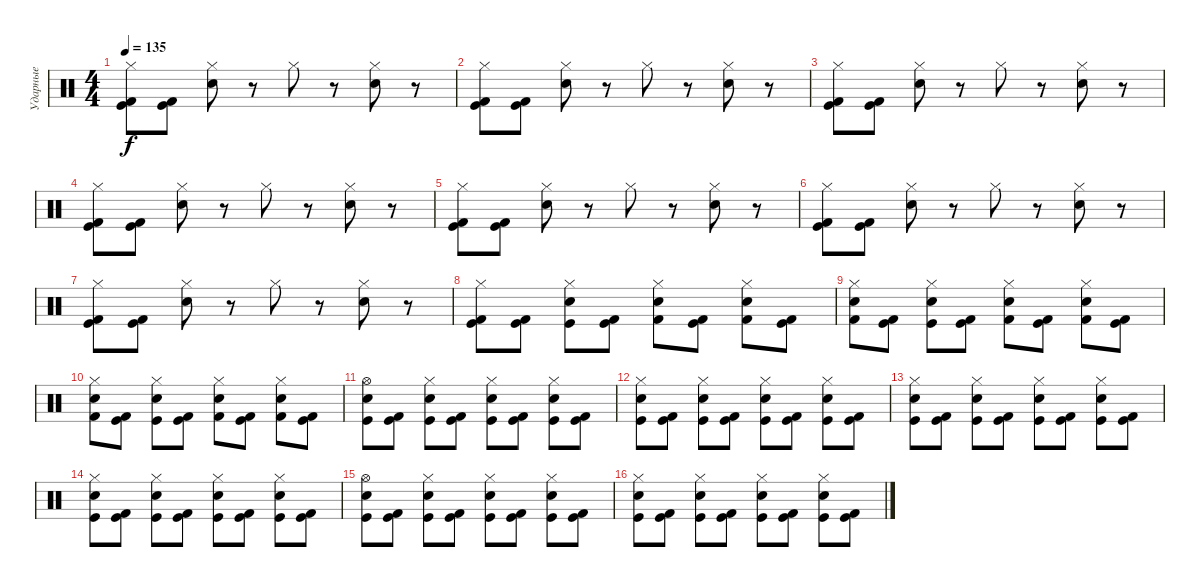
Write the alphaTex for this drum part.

\track ("Ударные" "Ударные") {instrument percussion}
\staff {score}
\articulation defaults
\ts (4 4)
\tempo 135
\clef neutral
\ks c
("Hi-Hat (closed)" "Kick (hit)" "Kick (hit) 2").8{dy f} ("Kick (hit)" "Kick (hit) 2").8 ("Hi-Hat (closed)" "Electric Snare (hit)").8 r.8 "Hi-Hat (closed)".8 r.8 ("Hi-Hat (closed)" "Electric Snare (hit)").8 r.8 |
("Hi-Hat (closed)" "Kick (hit)" "Kick (hit) 2").8 ("Kick (hit)" "Kick (hit) 2").8 ("Hi-Hat (closed)" "Electric Snare (hit)").8 r.8 "Hi-Hat (closed)".8 r.8 ("Hi-Hat (closed)" "Electric Snare (hit)").8 r.8 |
("Hi-Hat (closed)" "Kick (hit)" "Kick (hit) 2").8 ("Kick (hit)" "Kick (hit) 2").8 ("Hi-Hat (closed)" "Electric Snare (hit)").8 r.8 "Hi-Hat (closed)".8 r.8 ("Hi-Hat (closed)" "Electric Snare (hit)").8 r.8 |
("Hi-Hat (closed)" "Kick (hit)" "Kick (hit) 2").8 ("Kick (hit)" "Kick (hit) 2").8 ("Hi-Hat (closed)" "Electric Snare (hit)").8 r.8 "Hi-Hat (closed)".8 r.8 ("Hi-Hat (closed)" "Electric Snare (hit)").8 r.8 |
("Hi-Hat (closed)" "Kick (hit)" "Kick (hit) 2").8 ("Kick (hit)" "Kick (hit) 2").8 ("Hi-Hat (closed)" "Electric Snare (hit)").8 r.8 "Hi-Hat (closed)".8 r.8 ("Hi-Hat (closed)" "Electric Snare (hit)").8 r.8 |
("Hi-Hat (closed)" "Kick (hit)" "Kick (hit) 2").8 ("Kick (hit)" "Kick (hit) 2").8 ("Hi-Hat (closed)" "Electric Snare (hit)").8 r.8 "Hi-Hat (closed)".8 r.8 ("Hi-Hat (closed)" "Electric Snare (hit)").8 r.8 |
("Hi-Hat (closed)" "Kick (hit)" "Kick (hit) 2").8 ("Kick (hit)" "Kick (hit) 2").8 ("Hi-Hat (closed)" "Electric Snare (hit)").8 r.8 "Hi-Hat (closed)".8 r.8 ("Hi-Hat (closed)" "Electric Snare (hit)").8 r.8 |
("Hi-Hat (closed)" "Kick (hit)" "Kick (hit) 2").8 ("Kick (hit)" "Kick (hit) 2").8 ("Hi-Hat (closed)" "Electric Snare (hit)" "Kick (hit)").8 ("Kick (hit)" "Kick (hit) 2").8 ("Hi-Hat (closed)" "Electric Snare (hit)" "Kick (hit) 2").8 ("Kick (hit)" "Kick (hit) 2").8 ("Hi-Hat (closed)" "Electric Snare (hit)" "Kick (hit) 2").8 ("Kick (hit)" "Kick (hit) 2").8 |
("Hi-Hat (closed)" "Electric Snare (hit)" "Kick (hit) 2").8 ("Kick (hit)" "Kick (hit) 2").8 ("Hi-Hat (closed)" "Electric Snare (hit)" "Kick (hit)").8 ("Kick (hit)" "Kick (hit) 2").8 ("Hi-Hat (closed)" "Electric Snare (hit)" "Kick (hit) 2").8 ("Kick (hit)" "Kick (hit) 2").8 ("Hi-Hat (closed)" "Electric Snare (hit)" "Kick (hit) 2").8 ("Kick (hit)" "Kick (hit) 2").8 |
("Hi-Hat (closed)" "Electric Snare (hit)" "Kick (hit) 2").8 ("Kick (hit)" "Kick (hit) 2").8 ("Hi-Hat (closed)" "Electric Snare (hit)" "Kick (hit)").8 ("Kick (hit)" "Kick (hit) 2").8 ("Hi-Hat (closed)" "Electric Snare (hit)" "Kick (hit) 2").8 ("Kick (hit)" "Kick (hit) 2").8 ("Hi-Hat (closed)" "Electric Snare (hit)" "Kick (hit) 2").8 ("Kick (hit)" "Kick (hit) 2").8 |
("Hi-Hat (open)" "Electric Snare (hit)" "Kick (hit)").8 ("Kick (hit)" "Kick (hit) 2").8 ("Hi-Hat (closed)" "Electric Snare (hit)" "Kick (hit)").8 ("Kick (hit)" "Kick (hit) 2").8 ("Hi-Hat (closed)" "Electric Snare (hit)" "Kick (hit)").8 ("Kick (hit)" "Kick (hit) 2").8 ("Hi-Hat (closed)" "Electric Snare (hit)" "Kick (hit)").8 ("Kick (hit)" "Kick (hit) 2").8 |
("Hi-Hat (closed)" "Electric Snare (hit)" "Kick (hit)").8 ("Kick (hit)" "Kick (hit) 2").8 ("Hi-Hat (closed)" "Electric Snare (hit)" "Kick (hit)").8 ("Kick (hit)" "Kick (hit) 2").8 ("Hi-Hat (closed)" "Electric Snare (hit)" "Kick (hit)").8 ("Kick (hit)" "Kick (hit) 2").8 ("Hi-Hat (closed)" "Electric Snare (hit)" "Kick (hit)").8 ("Kick (hit)" "Kick (hit) 2").8 |
("Hi-Hat (closed)" "Electric Snare (hit)" "Kick (hit)").8 ("Kick (hit)" "Kick (hit) 2").8 ("Hi-Hat (closed)" "Electric Snare (hit)" "Kick (hit)").8 ("Kick (hit)" "Kick (hit) 2").8 ("Hi-Hat (closed)" "Electric Snare (hit)" "Kick (hit)").8 ("Kick (hit)" "Kick (hit) 2").8 ("Hi-Hat (closed)" "Electric Snare (hit)" "Kick (hit)").8 ("Kick (hit)" "Kick (hit) 2").8 |
("Hi-Hat (closed)" "Electric Snare (hit)" "Kick (hit)").8 ("Kick (hit)" "Kick (hit) 2").8 ("Hi-Hat (closed)" "Electric Snare (hit)" "Kick (hit)").8 ("Kick (hit)" "Kick (hit) 2").8 ("Hi-Hat (closed)" "Electric Snare (hit)" "Kick (hit)").8 ("Kick (hit)" "Kick (hit) 2").8 ("Hi-Hat (closed)" "Electric Snare (hit)" "Kick (hit)").8 ("Kick (hit)" "Kick (hit) 2").8 |
("Hi-Hat (open)" "Electric Snare (hit)" "Kick (hit)").8 ("Kick (hit)" "Kick (hit) 2").8 ("Hi-Hat (closed)" "Electric Snare (hit)" "Kick (hit)").8 ("Kick (hit)" "Kick (hit) 2").8 ("Hi-Hat (closed)" "Electric Snare (hit)" "Kick (hit)").8 ("Kick (hit)" "Kick (hit) 2").8 ("Hi-Hat (closed)" "Electric Snare (hit)" "Kick (hit)").8 ("Kick (hit)" "Kick (hit) 2").8 |
("Hi-Hat (closed)" "Electric Snare (hit)" "Kick (hit)").8 ("Kick (hit)" "Kick (hit) 2").8 ("Hi-Hat (closed)" "Electric Snare (hit)" "Kick (hit)").8 ("Kick (hit)" "Kick (hit) 2").8 ("Hi-Hat (closed)" "Electric Snare (hit)" "Kick (hit)").8 ("Kick (hit)" "Kick (hit) 2").8 ("Hi-Hat (closed)" "Electric Snare (hit)" "Kick (hit)").8 ("Kick (hit)" "Kick (hit) 2").8
